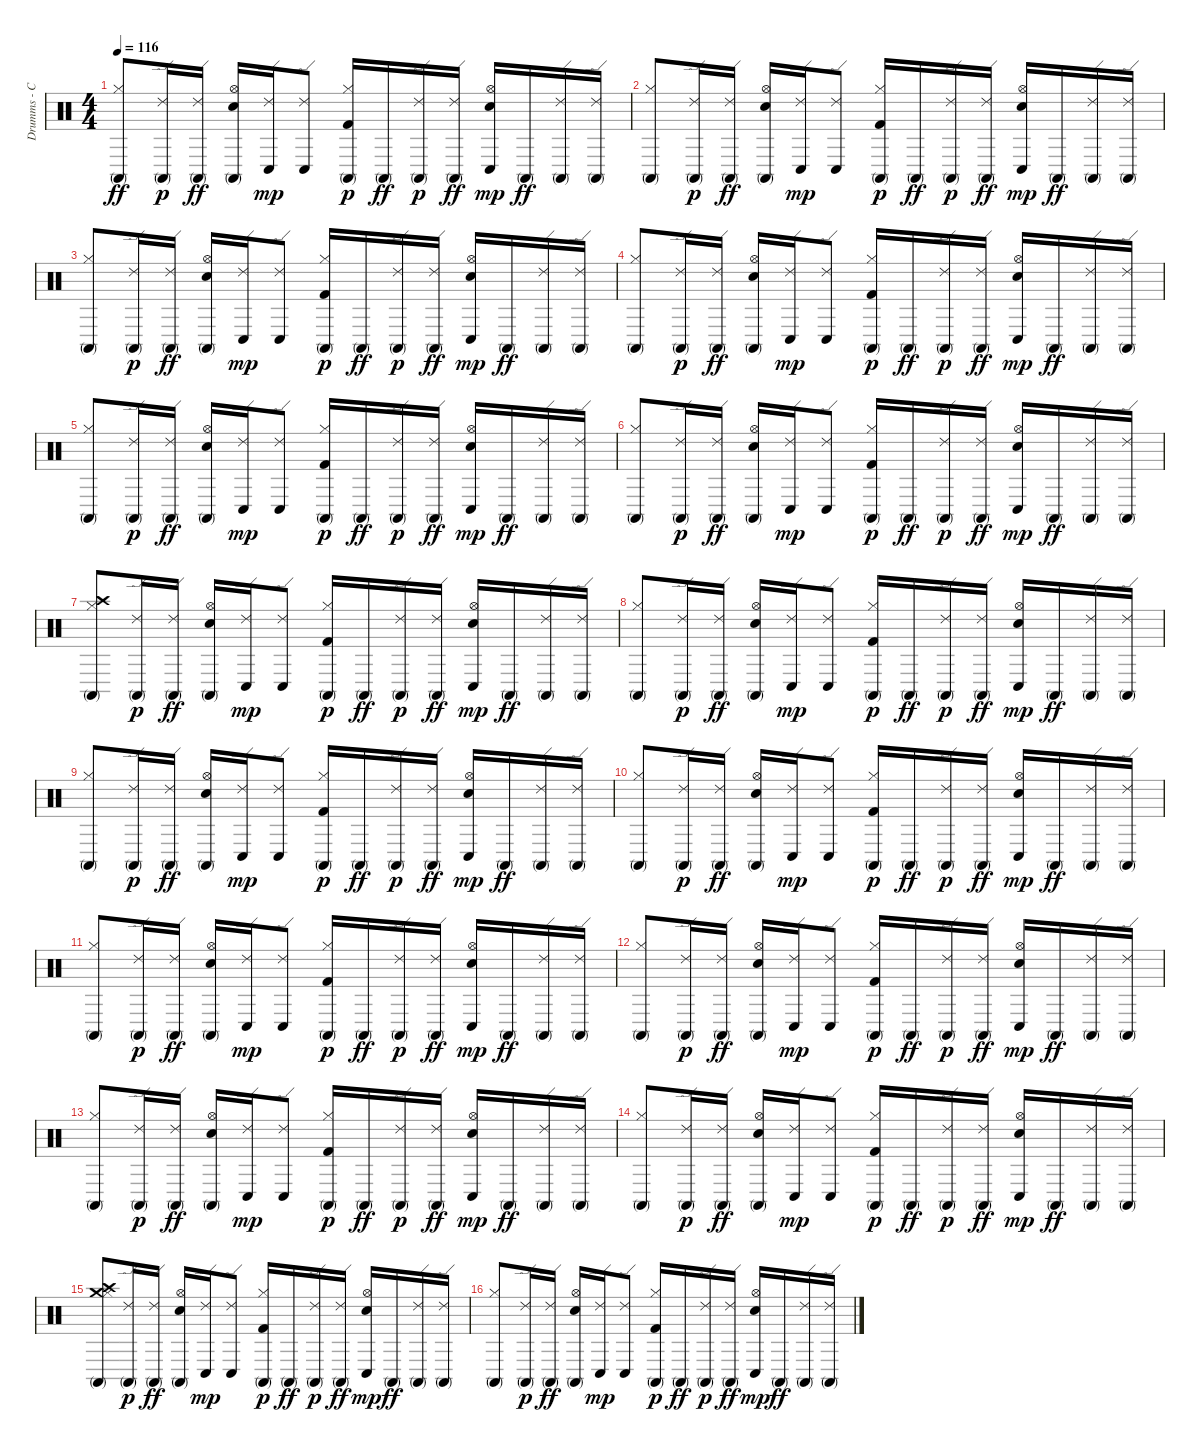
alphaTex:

\track ("Drumms - Conga" "Drumms - C") {instrument percussion}
\staff {score}
\articulation defaults
\ts (4 4)
\tempo 116
\clef neutral
\ks c
("Conga high (mute)" "Hi-Hat (closed)").8{dy ff} ("Conga high (mute)" "Ride (edge) 2").16{dy p} ("Conga high (mute)" "Ride (edge) 2").16{dy ff} ("Conga high (mute)" "Snare (hit) 2" "Hi-Hat (open)").16 ("Conga low (hit)" "Ride (edge) 2").16{dy mp} ("Conga low (hit)" "Ride (edge) 2").8 ("Conga high (mute)" "Kick (hit) 2" "Hi-Hat (closed)").16{dy p} "Conga high (mute)".16{dy ff} ("Conga high (mute)" "Ride (edge) 2").16{dy p} ("Conga high (mute)" "Ride (edge) 2").16{dy ff} ("Conga low (hit)" "Snare (hit) 2" "Hi-Hat (open)").16{dy mp} "Conga high (mute)".16{dy ff} ("Conga high (mute)" "Ride (edge) 2").16 ("Conga high (mute)" "Ride (edge) 2").16 |
("Conga high (mute)" "Hi-Hat (closed)").8 ("Conga high (mute)" "Ride (edge) 2").16{dy p} ("Conga high (mute)" "Ride (edge) 2").16{dy ff} ("Conga high (mute)" "Snare (hit) 2" "Hi-Hat (open)").16 ("Conga low (hit)" "Ride (edge) 2").16{dy mp} ("Conga low (hit)" "Ride (edge) 2").8 ("Conga high (mute)" "Kick (hit) 2" "Hi-Hat (closed)").16{dy p} "Conga high (mute)".16{dy ff} ("Conga high (mute)" "Ride (edge) 2").16{dy p} ("Conga high (mute)" "Ride (edge) 2").16{dy ff} ("Conga low (hit)" "Snare (hit) 2" "Hi-Hat (open)").16{dy mp} "Conga high (mute)".16{dy ff} ("Conga high (mute)" "Ride (edge) 2").16 ("Conga high (mute)" "Ride (edge) 2").16 |
("Conga high (mute)" "Hi-Hat (closed)").8 ("Conga high (mute)" "Ride (edge) 2").16{dy p} ("Conga high (mute)" "Ride (edge) 2").16{dy ff} ("Conga high (mute)" "Snare (hit) 2" "Hi-Hat (open)").16 ("Conga low (hit)" "Ride (edge) 2").16{dy mp} ("Conga low (hit)" "Ride (edge) 2").8 ("Conga high (mute)" "Kick (hit) 2" "Hi-Hat (closed)").16{dy p} "Conga high (mute)".16{dy ff} ("Conga high (mute)" "Ride (edge) 2").16{dy p} ("Conga high (mute)" "Ride (edge) 2").16{dy ff} ("Conga low (hit)" "Snare (hit) 2" "Hi-Hat (open)").16{dy mp} "Conga high (mute)".16{dy ff} ("Conga high (mute)" "Ride (edge) 2").16 ("Conga high (mute)" "Ride (edge) 2").16 |
("Conga high (mute)" "Hi-Hat (closed)").8 ("Conga high (mute)" "Ride (edge) 2").16{dy p} ("Conga high (mute)" "Ride (edge) 2").16{dy ff} ("Conga high (mute)" "Snare (hit) 2" "Hi-Hat (open)").16 ("Conga low (hit)" "Ride (edge) 2").16{dy mp} ("Conga low (hit)" "Ride (edge) 2").8 ("Conga high (mute)" "Kick (hit) 2" "Hi-Hat (closed)").16{dy p} "Conga high (mute)".16{dy ff} ("Conga high (mute)" "Ride (edge) 2").16{dy p} ("Conga high (mute)" "Ride (edge) 2").16{dy ff} ("Conga low (hit)" "Snare (hit) 2" "Hi-Hat (open)").16{dy mp} "Conga high (mute)".16{dy ff} ("Conga high (mute)" "Ride (edge) 2").16 ("Conga high (mute)" "Ride (edge) 2").16 |
("Conga high (mute)" "Hi-Hat (closed)").8 ("Conga high (mute)" "Ride (edge) 2").16{dy p} ("Conga high (mute)" "Ride (edge) 2").16{dy ff} ("Conga high (mute)" "Snare (hit) 2" "Hi-Hat (open)").16 ("Conga low (hit)" "Ride (edge) 2").16{dy mp} ("Conga low (hit)" "Ride (edge) 2").8 ("Conga high (mute)" "Kick (hit) 2" "Hi-Hat (closed)").16{dy p} "Conga high (mute)".16{dy ff} ("Conga high (mute)" "Ride (edge) 2").16{dy p} ("Conga high (mute)" "Ride (edge) 2").16{dy ff} ("Conga low (hit)" "Snare (hit) 2" "Hi-Hat (open)").16{dy mp} "Conga high (mute)".16{dy ff} ("Conga high (mute)" "Ride (edge) 2").16 ("Conga high (mute)" "Ride (edge) 2").16 |
("Conga high (mute)" "Hi-Hat (closed)").8 ("Conga high (mute)" "Ride (edge) 2").16{dy p} ("Conga high (mute)" "Ride (edge) 2").16{dy ff} ("Conga high (mute)" "Snare (hit) 2" "Hi-Hat (open)").16 ("Conga low (hit)" "Ride (edge) 2").16{dy mp} ("Conga low (hit)" "Ride (edge) 2").8 ("Conga high (mute)" "Kick (hit) 2" "Hi-Hat (closed)").16{dy p} "Conga high (mute)".16{dy ff} ("Conga high (mute)" "Ride (edge) 2").16{dy p} ("Conga high (mute)" "Ride (edge) 2").16{dy ff} ("Conga low (hit)" "Snare (hit) 2" "Hi-Hat (open)").16{dy mp} "Conga high (mute)".16{dy ff} ("Conga high (mute)" "Ride (edge) 2").16 ("Conga high (mute)" "Ride (edge) 2").16 |
\section ("" "")
("Conga high (mute)" "Crash high (hit)" "Hi-Hat (closed)").8 ("Conga high (mute)" "Ride (edge) 2").16{dy p} ("Conga high (mute)" "Ride (edge) 2").16{dy ff} ("Conga high (mute)" "Snare (hit) 2" "Hi-Hat (open)").16 ("Conga low (hit)" "Ride (edge) 2").16{dy mp} ("Conga low (hit)" "Ride (edge) 2").8 ("Conga high (mute)" "Kick (hit) 2" "Hi-Hat (closed)").16{dy p} "Conga high (mute)".16{dy ff} ("Conga high (mute)" "Ride (edge) 2").16{dy p} ("Conga high (mute)" "Ride (edge) 2").16{dy ff} ("Conga low (hit)" "Snare (hit) 2" "Hi-Hat (open)").16{dy mp} "Conga high (mute)".16{dy ff} ("Conga high (mute)" "Ride (edge) 2").16 ("Conga high (mute)" "Ride (edge) 2").16 |
("Conga high (mute)" "Hi-Hat (closed)").8 ("Conga high (mute)" "Ride (edge) 2").16{dy p} ("Conga high (mute)" "Ride (edge) 2").16{dy ff} ("Conga high (mute)" "Snare (hit) 2" "Hi-Hat (open)").16 ("Conga low (hit)" "Ride (edge) 2").16{dy mp} ("Conga low (hit)" "Ride (edge) 2").8 ("Conga high (mute)" "Kick (hit) 2" "Hi-Hat (closed)").16{dy p} "Conga high (mute)".16{dy ff} ("Conga high (mute)" "Ride (edge) 2").16{dy p} ("Conga high (mute)" "Ride (edge) 2").16{dy ff} ("Conga low (hit)" "Snare (hit) 2" "Hi-Hat (open)").16{dy mp} "Conga high (mute)".16{dy ff} ("Conga high (mute)" "Ride (edge) 2").16 ("Conga high (mute)" "Ride (edge) 2").16 |
("Conga high (mute)" "Hi-Hat (closed)").8 ("Conga high (mute)" "Ride (edge) 2").16{dy p} ("Conga high (mute)" "Ride (edge) 2").16{dy ff} ("Conga high (mute)" "Snare (hit) 2" "Hi-Hat (open)").16 ("Conga low (hit)" "Ride (edge) 2").16{dy mp} ("Conga low (hit)" "Ride (edge) 2").8 ("Conga high (mute)" "Kick (hit) 2" "Hi-Hat (closed)").16{dy p} "Conga high (mute)".16{dy ff} ("Conga high (mute)" "Ride (edge) 2").16{dy p} ("Conga high (mute)" "Ride (edge) 2").16{dy ff} ("Conga low (hit)" "Snare (hit) 2" "Hi-Hat (open)").16{dy mp} "Conga high (mute)".16{dy ff} ("Conga high (mute)" "Ride (edge) 2").16 ("Conga high (mute)" "Ride (edge) 2").16 |
("Conga high (mute)" "Hi-Hat (closed)").8 ("Conga high (mute)" "Ride (edge) 2").16{dy p} ("Conga high (mute)" "Ride (edge) 2").16{dy ff} ("Conga high (mute)" "Snare (hit) 2" "Hi-Hat (open)").16 ("Conga low (hit)" "Ride (edge) 2").16{dy mp} ("Conga low (hit)" "Ride (edge) 2").8 ("Conga high (mute)" "Kick (hit) 2" "Hi-Hat (closed)").16{dy p} "Conga high (mute)".16{dy ff} ("Conga high (mute)" "Ride (edge) 2").16{dy p} ("Conga high (mute)" "Ride (edge) 2").16{dy ff} ("Conga low (hit)" "Snare (hit) 2" "Hi-Hat (open)").16{dy mp} "Conga high (mute)".16{dy ff} ("Conga high (mute)" "Ride (edge) 2").16 ("Conga high (mute)" "Ride (edge) 2").16 |
("Conga high (mute)" "Hi-Hat (closed)").8 ("Conga high (mute)" "Ride (edge) 2").16{dy p} ("Conga high (mute)" "Ride (edge) 2").16{dy ff} ("Conga high (mute)" "Snare (hit) 2" "Hi-Hat (open)").16 ("Conga low (hit)" "Ride (edge) 2").16{dy mp} ("Conga low (hit)" "Ride (edge) 2").8 ("Conga high (mute)" "Kick (hit) 2" "Hi-Hat (closed)").16{dy p} "Conga high (mute)".16{dy ff} ("Conga high (mute)" "Ride (edge) 2").16{dy p} ("Conga high (mute)" "Ride (edge) 2").16{dy ff} ("Conga low (hit)" "Snare (hit) 2" "Hi-Hat (open)").16{dy mp} "Conga high (mute)".16{dy ff} ("Conga high (mute)" "Ride (edge) 2").16 ("Conga high (mute)" "Ride (edge) 2").16 |
("Conga high (mute)" "Hi-Hat (closed)").8 ("Conga high (mute)" "Ride (edge) 2").16{dy p} ("Conga high (mute)" "Ride (edge) 2").16{dy ff} ("Conga high (mute)" "Snare (hit) 2" "Hi-Hat (open)").16 ("Conga low (hit)" "Ride (edge) 2").16{dy mp} ("Conga low (hit)" "Ride (edge) 2").8 ("Conga high (mute)" "Kick (hit) 2" "Hi-Hat (closed)").16{dy p} "Conga high (mute)".16{dy ff} ("Conga high (mute)" "Ride (edge) 2").16{dy p} ("Conga high (mute)" "Ride (edge) 2").16{dy ff} ("Conga low (hit)" "Snare (hit) 2" "Hi-Hat (open)").16{dy mp} "Conga high (mute)".16{dy ff} ("Conga high (mute)" "Ride (edge) 2").16 ("Conga high (mute)" "Ride (edge) 2").16 |
("Conga high (mute)" "Hi-Hat (closed)").8 ("Conga high (mute)" "Ride (edge) 2").16{dy p} ("Conga high (mute)" "Ride (edge) 2").16{dy ff} ("Conga high (mute)" "Snare (hit) 2" "Hi-Hat (open)").16 ("Conga low (hit)" "Ride (edge) 2").16{dy mp} ("Conga low (hit)" "Ride (edge) 2").8 ("Conga high (mute)" "Kick (hit) 2" "Hi-Hat (closed)").16{dy p} "Conga high (mute)".16{dy ff} ("Conga high (mute)" "Ride (edge) 2").16{dy p} ("Conga high (mute)" "Ride (edge) 2").16{dy ff} ("Conga low (hit)" "Snare (hit) 2" "Hi-Hat (open)").16{dy mp} "Conga high (mute)".16{dy ff} ("Conga high (mute)" "Ride (edge) 2").16 ("Conga high (mute)" "Ride (edge) 2").16 |
("Conga high (mute)" "Hi-Hat (closed)").8 ("Conga high (mute)" "Ride (edge) 2").16{dy p} ("Conga high (mute)" "Ride (edge) 2").16{dy ff} ("Conga high (mute)" "Snare (hit) 2" "Hi-Hat (open)").16 ("Conga low (hit)" "Ride (edge) 2").16{dy mp} ("Conga low (hit)" "Ride (edge) 2").8 ("Conga high (mute)" "Kick (hit) 2" "Hi-Hat (closed)").16{dy p} "Conga high (mute)".16{dy ff} ("Conga high (mute)" "Ride (edge) 2").16{dy p} ("Conga high (mute)" "Ride (edge) 2").16{dy ff} ("Conga low (hit)" "Snare (hit) 2" "Hi-Hat (open)").16{dy mp} "Conga high (mute)".16{dy ff} ("Conga high (mute)" "Ride (edge) 2").16 ("Conga high (mute)" "Ride (edge) 2").16 |
\section ("" "")
("Conga high (mute)" "Crash medium (hit)" "Crash high (hit)" "Hi-Hat (closed)").8 ("Conga high (mute)" "Ride (edge) 2").16{dy p} ("Conga high (mute)" "Ride (edge) 2").16{dy ff} ("Conga high (mute)" "Snare (hit) 2" "Hi-Hat (open)").16 ("Conga low (hit)" "Ride (edge) 2").16{dy mp} ("Conga low (hit)" "Ride (edge) 2").8 ("Conga high (mute)" "Kick (hit) 2" "Hi-Hat (closed)").16{dy p} "Conga high (mute)".16{dy ff} ("Conga high (mute)" "Ride (edge) 2").16{dy p} ("Conga high (mute)" "Ride (edge) 2").16{dy ff} ("Conga low (hit)" "Snare (hit) 2" "Hi-Hat (open)").16{dy mp} "Conga high (mute)".16{dy ff} ("Conga high (mute)" "Ride (edge) 2").16 ("Conga high (mute)" "Ride (edge) 2").16 |
("Conga high (mute)" "Hi-Hat (closed)").8 ("Conga high (mute)" "Ride (edge) 2").16{dy p} ("Conga high (mute)" "Ride (edge) 2").16{dy ff} ("Conga high (mute)" "Snare (hit) 2" "Hi-Hat (open)").16 ("Conga low (hit)" "Ride (edge) 2").16{dy mp} ("Conga low (hit)" "Ride (edge) 2").8 ("Conga high (mute)" "Kick (hit) 2" "Hi-Hat (closed)").16{dy p} "Conga high (mute)".16{dy ff} ("Conga high (mute)" "Ride (edge) 2").16{dy p} ("Conga high (mute)" "Ride (edge) 2").16{dy ff} ("Conga low (hit)" "Snare (hit) 2" "Hi-Hat (open)").16{dy mp} "Conga high (mute)".16{dy ff} ("Conga high (mute)" "Ride (edge) 2").16 ("Conga high (mute)" "Ride (edge) 2").16
